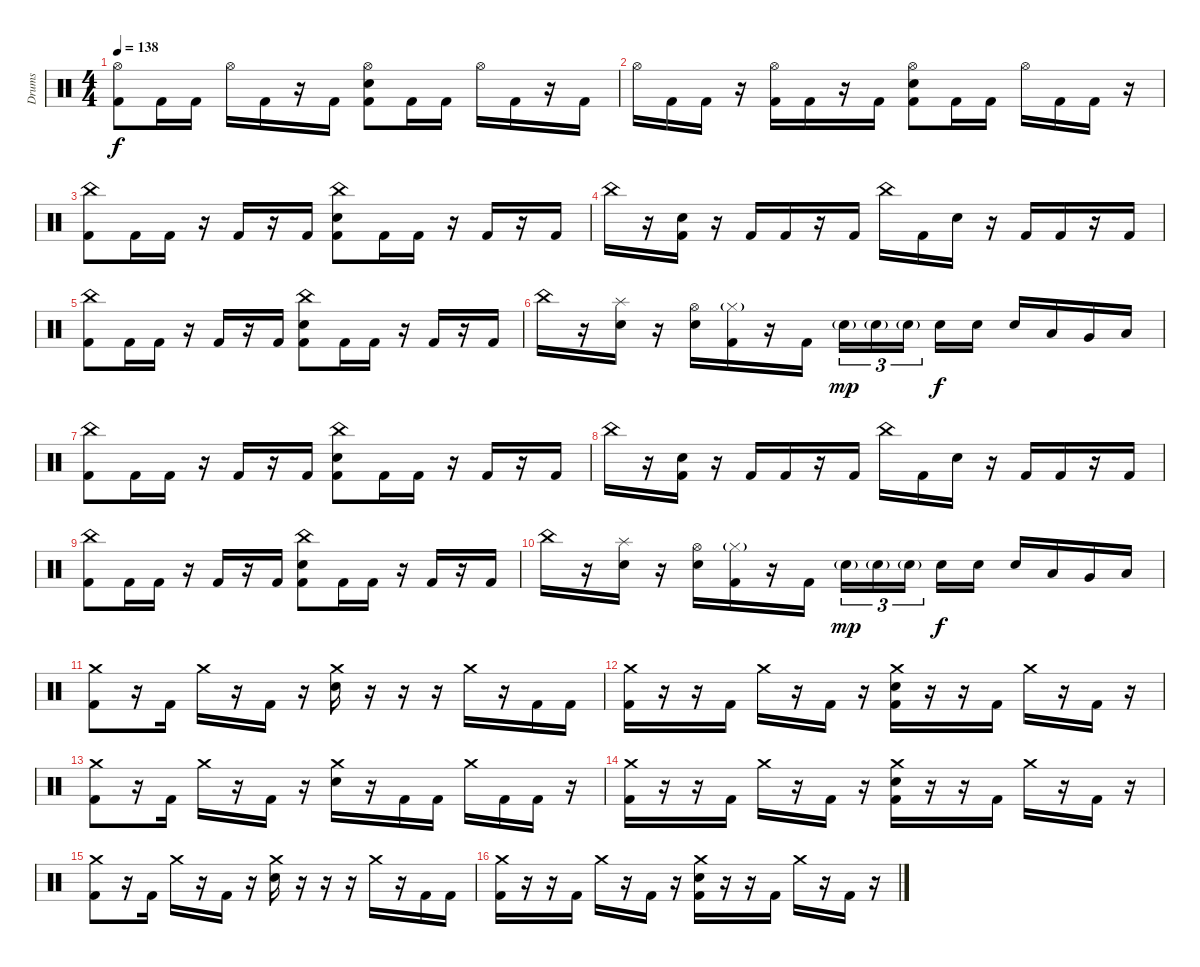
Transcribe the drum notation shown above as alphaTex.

\track ("Drums" "Drums") {instrument percussion}
\staff {score}
\articulation defaults
\ts (4 4)
\tempo 138
\clef neutral
\ks c
("Hi-Hat (open)" "Kick (hit) 2").8{dy f} "Kick (hit) 2".16 "Kick (hit) 2".16 "Hi-Hat (open)".16 "Kick (hit) 2".16 r.16 "Kick (hit) 2".16 ("Hi-Hat (open)" "Electric Snare (hit)" "Kick (hit) 2").8 "Kick (hit) 2".16 "Kick (hit) 2".16 "Hi-Hat (open)".16 "Kick (hit) 2".16 r.16 "Kick (hit) 2".16 |
"Hi-Hat (open)".16 "Kick (hit) 2".16 "Kick (hit) 2".16 r.16 ("Hi-Hat (open)" "Kick (hit) 2").16 "Kick (hit) 2".16 r.16 "Kick (hit) 2".16 ("Hi-Hat (open)" "Electric Snare (hit)" "Kick (hit) 2").8 "Kick (hit) 2".16 "Kick (hit) 2".16 "Hi-Hat (open)".16 "Kick (hit) 2".16 "Kick (hit) 2".16 r.16 |
("China (hit)" "Kick (hit) 2").8 "Kick (hit) 2".16 "Kick (hit) 2".16 r.16 "Kick (hit) 2".16 r.16 "Kick (hit) 2".16 ("China (hit)" "Electric Snare (hit)" "Kick (hit) 2").8 "Kick (hit) 2".16 "Kick (hit) 2".16 r.16 "Kick (hit) 2".16 r.16 "Kick (hit) 2".16 |
"China (hit)".16 r.16 ("Electric Snare (hit)" "Kick (hit) 2").16 r.16 "Kick (hit) 2".16 "Kick (hit) 2".16 r.16 "Kick (hit) 2".16 "China (hit)".16 "Kick (hit) 2".16 "Electric Snare (hit)".16 r.16 "Kick (hit) 2".16 "Kick (hit) 2".16 r.16 "Kick (hit) 2".16 |
("China (hit)" "Kick (hit) 2").8 "Kick (hit) 2".16 "Kick (hit) 2".16 r.16 "Kick (hit) 2".16 r.16 "Kick (hit) 2".16 ("China (hit)" "Electric Snare (hit)" "Kick (hit) 2").8 "Kick (hit) 2".16 "Kick (hit) 2".16 r.16 "Kick (hit) 2".16 r.16 "Kick (hit) 2".16 |
"China (hit)".16 r.16 ("Splash (hit)" "Electric Snare (hit)").16 r.16 ("Hi-Hat (open)" "Electric Snare (hit)").16 ("Hi-Hat (closed)"{g} "Kick (hit) 2").16 r.16 "Kick (hit) 2".16 "Snare (hit) 2"{g}.16{tu (3 2) dy mp} "Snare (hit) 2"{g}.16{tu (3 2)} "Snare (hit) 2"{g}.16{tu (3 2)} "Electric Snare (hit)".16{dy f} "Electric Snare (hit)".16 "Electric Snare (hit)".16 "Low Tom (hit)".16 "Very Low Tom (hit)".16 "Low Floor Tom (hit)".16 |
("China (hit)" "Kick (hit) 2").8 "Kick (hit) 2".16 "Kick (hit) 2".16 r.16 "Kick (hit) 2".16 r.16 "Kick (hit) 2".16 ("China (hit)" "Electric Snare (hit)" "Kick (hit) 2").8 "Kick (hit) 2".16 "Kick (hit) 2".16 r.16 "Kick (hit) 2".16 r.16 "Kick (hit) 2".16 |
"China (hit)".16 r.16 ("Electric Snare (hit)" "Kick (hit) 2").16 r.16 "Kick (hit) 2".16 "Kick (hit) 2".16 r.16 "Kick (hit) 2".16 "China (hit)".16 "Kick (hit) 2".16 "Electric Snare (hit)".16 r.16 "Kick (hit) 2".16 "Kick (hit) 2".16 r.16 "Kick (hit) 2".16 |
("China (hit)" "Kick (hit) 2").8 "Kick (hit) 2".16 "Kick (hit) 2".16 r.16 "Kick (hit) 2".16 r.16 "Kick (hit) 2".16 ("China (hit)" "Electric Snare (hit)" "Kick (hit) 2").8 "Kick (hit) 2".16 "Kick (hit) 2".16 r.16 "Kick (hit) 2".16 r.16 "Kick (hit) 2".16 |
"China (hit)".16 r.16 ("Splash (hit)" "Electric Snare (hit)").16 r.16 ("Hi-Hat (open)" "Electric Snare (hit)").16 ("Hi-Hat (closed)"{g} "Kick (hit) 2").16 r.16 "Kick (hit) 2".16 "Snare (hit) 2"{g}.16{tu (3 2) dy mp} "Snare (hit) 2"{g}.16{tu (3 2)} "Snare (hit) 2"{g}.16{tu (3 2)} "Electric Snare (hit)".16{dy f} "Electric Snare (hit)".16 "Electric Snare (hit)".16 "Low Tom (hit)".16 "Very Low Tom (hit)".16 "Low Floor Tom (hit)".16 |
("Crash medium (hit)" "Kick (hit) 2").8 r.16 "Kick (hit) 2".16 "Crash medium (hit)".16 r.16 "Kick (hit) 2".16 r.16 ("Crash medium (hit)" "Electric Snare (hit)").16 r.16 r.16 r.16 "Crash medium (hit)".16 r.16 "Kick (hit) 2".16 "Kick (hit) 2".16 |
("Crash medium (hit)" "Kick (hit) 2").16 r.16 r.16 "Kick (hit) 2".16 "Crash medium (hit)".16 r.16 "Kick (hit) 2".16 r.16 ("Crash medium (hit)" "Electric Snare (hit)" "Kick (hit) 2").16 r.16 r.16 "Kick (hit) 2".16 "Crash medium (hit)".16 r.16 "Kick (hit) 2".16 r.16 |
("Crash medium (hit)" "Kick (hit) 2").8 r.16 "Kick (hit) 2".16 "Crash medium (hit)".16 r.16 "Kick (hit) 2".16 r.16 ("Crash medium (hit)" "Electric Snare (hit)").16 r.16 "Kick (hit) 2".16 "Kick (hit) 2".16 "Crash medium (hit)".16 "Kick (hit) 2".16 "Kick (hit) 2".16 r.16 |
("Crash medium (hit)" "Kick (hit) 2").16 r.16 r.16 "Kick (hit) 2".16 "Crash medium (hit)".16 r.16 "Kick (hit) 2".16 r.16 ("Crash medium (hit)" "Electric Snare (hit)" "Kick (hit) 2").16 r.16 r.16 "Kick (hit) 2".16 "Crash medium (hit)".16 r.16 "Kick (hit) 2".16 r.16 |
("Crash medium (hit)" "Kick (hit) 2").8 r.16 "Kick (hit) 2".16 "Crash medium (hit)".16 r.16 "Kick (hit) 2".16 r.16 ("Crash medium (hit)" "Electric Snare (hit)").16 r.16 r.16 r.16 "Crash medium (hit)".16 r.16 "Kick (hit) 2".16 "Kick (hit) 2".16 |
("Crash medium (hit)" "Kick (hit) 2").16 r.16 r.16 "Kick (hit) 2".16 "Crash medium (hit)".16 r.16 "Kick (hit) 2".16 r.16 ("Crash medium (hit)" "Electric Snare (hit)" "Kick (hit) 2").16 r.16 r.16 "Kick (hit) 2".16 "Crash medium (hit)".16 r.16 "Kick (hit) 2".16 r.16
